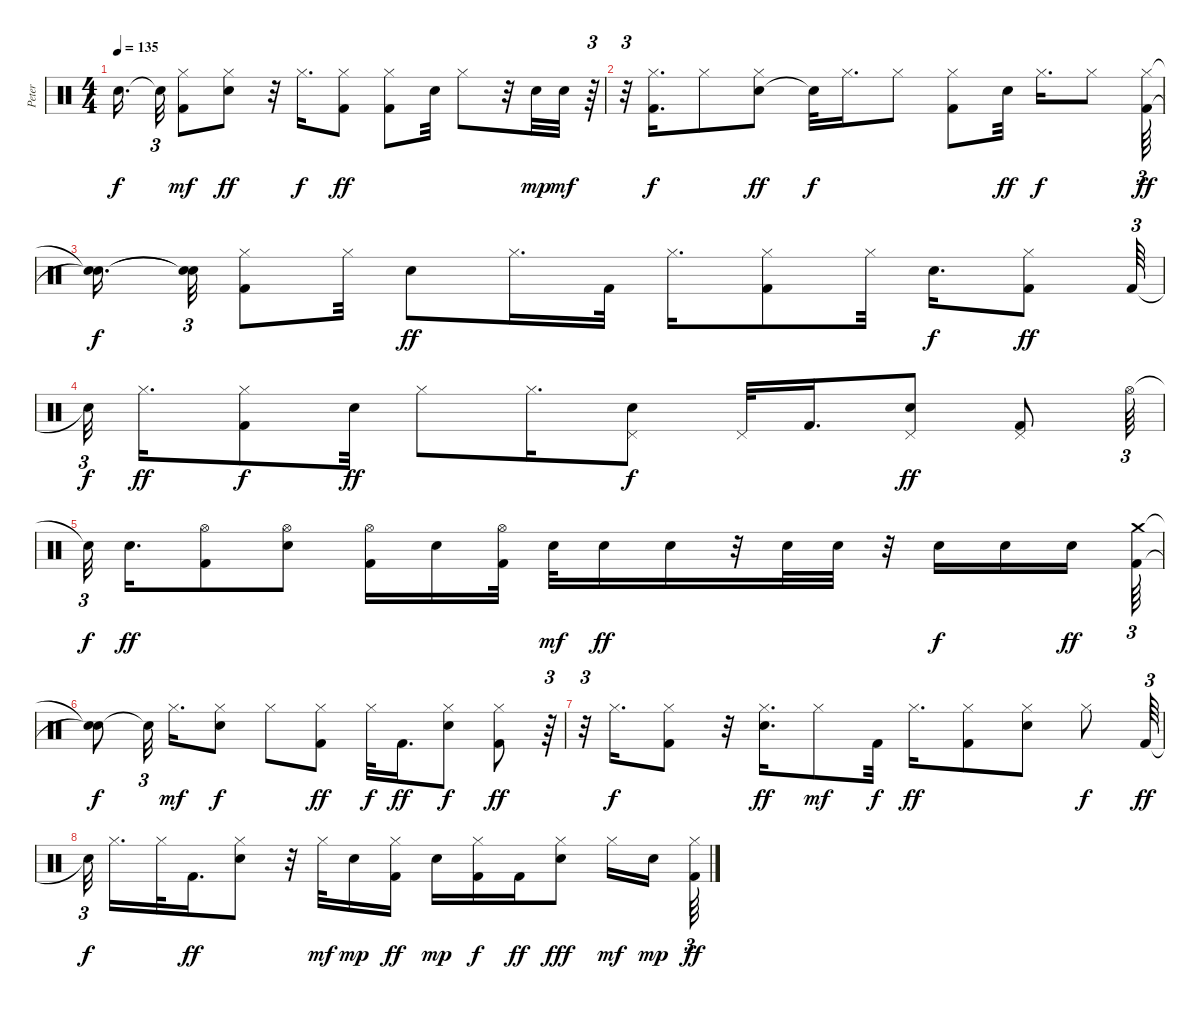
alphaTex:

\track ("Peter" "Peter") {instrument percussion}
\staff {score}
\articulation defaults
\ts (4 4)
\tempo 135
\clef neutral
\ks c "Snare (hit)"{t}.16{d dy f} "Snare (hit)"{t}.32{tu (3 2)}
("Kick (hit) 2" "Hi-Hat (closed)").8{dy mf} ("Electric Snare (hit)" "Hi-Hat (closed)").8{dy ff} r.32 "Hi-Hat (closed)".16{d dy f} ("Kick (hit) 2" "Hi-Hat (closed)").8{dy ff} ("Kick (hit) 2" "Hi-Hat (closed)").8 "Electric Snare (hit)".32 "Hi-Hat (closed)".8 r.32 "Electric Snare (hit)".32{dy mp} "Electric Snare (hit)".32{dy mf} r.64{tu (3 2)} |
r.32{tu (3 2)} ("Kick (hit) 2" "Hi-Hat (closed)").16{d dy f} "Hi-Hat (closed)".8 ("Electric Snare (hit)" "Hi-Hat (closed)").8{dy ff} "Snare (hit)"{t}.32{dy f} "Hi-Hat (closed)".16{d} "Hi-Hat (closed)".8 ("Hi-Hat (closed)" "Kick (hit) 2").8 "Electric Snare (hit)".32{dy ff} "Hi-Hat (closed)".16{d dy f} "Hi-Hat (closed)".8 ("Kick (hit) 2" "Hi-Hat (closed)").64{tu (3 2) dy ff} |
("Snare (hit)"{t} "Snare (hit)"{t}).16{d dy f} ("Snare (hit)"{t} "Snare (hit)"{t}).32{tu (3 2)} ("Kick (hit) 2" "Hi-Hat (closed)").8 "Hi-Hat (closed)".32 "Electric Snare (hit)".8{dy ff} "Hi-Hat (closed)".16{d} "Kick (hit) 2".32 "Hi-Hat (closed)".16{d} ("Hi-Hat (closed)" "Kick (hit) 2").8 "Hi-Hat (closed)".32 "Electric Snare (hit)".16{d dy f} ("Hi-Hat (closed)" "Kick (hit) 2").8{dy ff} "Kick (hit) 2".64{tu (3 2)} |
"Snare (hit)"{t}.32{tu (3 2) dy f} "Hi-Hat (closed)".16{d dy ff} ("Kick (hit) 2" "Hi-Hat (closed)").8{dy f} "Electric Snare (hit)".32{dy ff} "Hi-Hat (closed)".8 "Hi-Hat (closed)".16{d} ("Pedal Hi-Hat (hit)" "Electric Snare (hit)").8{dy f} "Pedal Hi-Hat (hit)".32 "Kick (hit) 2".16{d} ("Pedal Hi-Hat (hit)" "Electric Snare (hit)").8{dy ff} ("Pedal Hi-Hat (hit)" "Kick (hit) 2").8 "Hi-Hat (open)".64{tu (3 2)} |
"Snare (hit)"{t}.32{tu (3 2) dy f} "Electric Snare (hit)".16{d dy ff} ("Hi-Hat (open)" "Kick (hit) 2").8 ("Electric Snare (hit)" "Hi-Hat (open)").8 ("Kick (hit) 2" "Hi-Hat (open)").16 "Electric Snare (hit)".16 ("Hi-Hat (open)" "Kick (hit) 2").32 "Electric Snare (hit)".32{dy mf} "Electric Snare (hit)".16{dy ff} "Electric Snare (hit)".16 r.32 "Electric Snare (hit)".32 "Electric Snare (hit)".32 r.32 "Electric Snare (hit)".16{dy f} "Electric Snare (hit)".16 "Electric Snare (hit)".16{dy ff} ("Kick (hit) 2" "Crash medium (hit)").64{tu (3 2)} |
("Snare (hit)"{t} "Snare (hit)"{t}).8{dy f} "Snare (hit)"{t}.32{tu (3 2)} "Hi-Hat (closed)".16{d dy mf} ("Electric Snare (hit)" "Hi-Hat (closed)").8{dy f} "Hi-Hat (closed)".8 ("Kick (hit) 2" "Hi-Hat (closed)").8{dy ff} "Hi-Hat (closed)".32{dy f} "Kick (hit) 2".16{d dy ff} ("Electric Snare (hit)" "Hi-Hat (closed)").8{dy f} ("Hi-Hat (closed)" "Kick (hit) 2").8{dy ff} r.64{tu (3 2)} |
r.32{tu (3 2)} "Hi-Hat (closed)".16{d dy f} ("Kick (hit) 2" "Hi-Hat (closed)").8 r.32 ("Hi-Hat (closed)" "Electric Snare (hit)").16{d dy ff} "Hi-Hat (closed)".8{dy mf} "Kick (hit) 2".32{dy f} "Hi-Hat (closed)".16{d dy ff} ("Hi-Hat (closed)" "Kick (hit) 2").8 ("Hi-Hat (closed)" "Electric Snare (hit)").8 "Hi-Hat (closed)".8{dy f} "Kick (hit) 2".64{tu (3 2) dy ff} |
"Snare (hit)"{t}.32{tu (3 2) dy f} "Hi-Hat (closed)".16{d} "Hi-Hat (closed)".32 "Kick (hit) 2".16{d dy ff} ("Hi-Hat (closed)" "Electric Snare (hit)").8 r.32 "Hi-Hat (closed)".32{dy mf} "Electric Snare (hit)".16{dy mp} ("Hi-Hat (closed)" "Kick (hit) 2").16{dy ff} "Electric Snare (hit)".16{dy mp} ("Hi-Hat (closed)" "Kick (hit) 2").16{dy f} "Kick (hit) 2".16{dy ff} ("Electric Snare (hit)" "Hi-Hat (closed)").8{dy fff} "Hi-Hat (closed)".16{dy mf} "Electric Snare (hit)".16{dy mp} ("Hi-Hat (closed)" "Kick (hit) 2").64{tu (3 2) dy ff}
